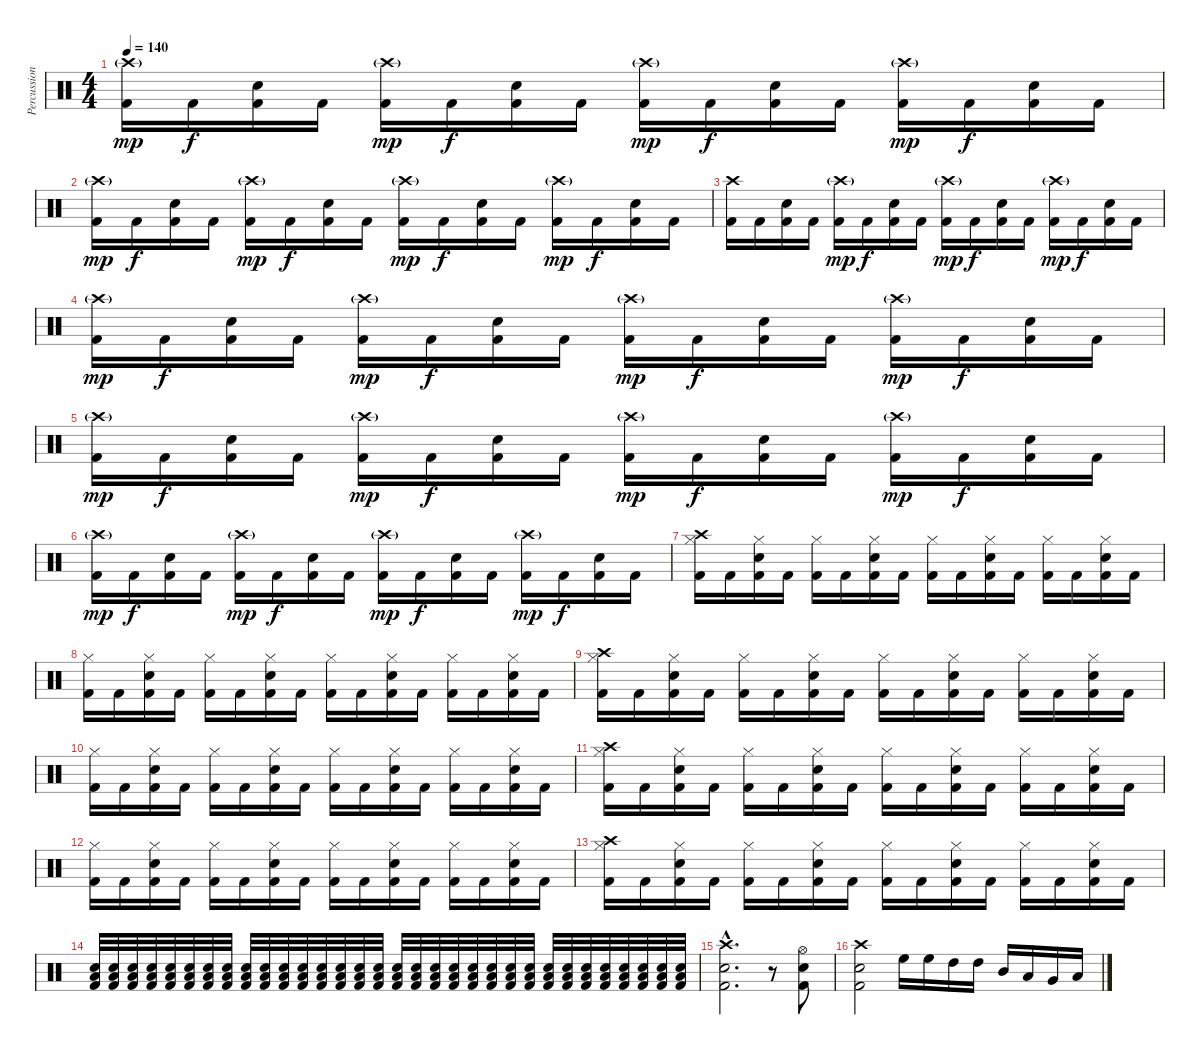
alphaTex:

\track ("Percussion" "Percussion") {instrument percussion}
\staff {score}
\articulation defaults
\ts (4 4)
\tempo 140
\clef neutral
\ks c
("Crash high (hit)"{g} "Kick (hit) 2").16{dy mp} "Kick (hit) 2".16{dy f} ("Electric Snare (hit)" "Kick (hit) 2").16 "Kick (hit) 2".16 ("Crash high (hit)"{g} "Kick (hit) 2").16{dy mp} "Kick (hit) 2".16{dy f} ("Electric Snare (hit)" "Kick (hit) 2").16 "Kick (hit) 2".16 ("Crash high (hit)"{g} "Kick (hit) 2").16{dy mp} "Kick (hit) 2".16{dy f} ("Electric Snare (hit)" "Kick (hit) 2").16 "Kick (hit) 2".16 ("Crash high (hit)"{g} "Kick (hit) 2").16{dy mp} "Kick (hit) 2".16{dy f} ("Electric Snare (hit)" "Kick (hit) 2").16 "Kick (hit) 2".16 |
("Crash high (hit)"{g} "Kick (hit) 2").16{dy mp} "Kick (hit) 2".16{dy f} ("Electric Snare (hit)" "Kick (hit) 2").16 "Kick (hit) 2".16 ("Crash high (hit)"{g} "Kick (hit) 2").16{dy mp} "Kick (hit) 2".16{dy f} ("Electric Snare (hit)" "Kick (hit) 2").16 "Kick (hit) 2".16 ("Crash high (hit)"{g} "Kick (hit) 2").16{dy mp} "Kick (hit) 2".16{dy f} ("Electric Snare (hit)" "Kick (hit) 2").16 "Kick (hit) 2".16 ("Crash high (hit)"{g} "Kick (hit) 2").16{dy mp} "Kick (hit) 2".16{dy f} ("Electric Snare (hit)" "Kick (hit) 2").16 "Kick (hit) 2".16 |
("Crash high (hit)" "Kick (hit) 2").16 "Kick (hit) 2".16 ("Electric Snare (hit)" "Kick (hit) 2").16 "Kick (hit) 2".16 ("Crash high (hit)"{g} "Kick (hit) 2").16{dy mp} "Kick (hit) 2".16{dy f} ("Electric Snare (hit)" "Kick (hit) 2").16 "Kick (hit) 2".16 ("Crash high (hit)"{g} "Kick (hit) 2").16{dy mp} "Kick (hit) 2".16{dy f} ("Electric Snare (hit)" "Kick (hit) 2").16 "Kick (hit) 2".16 ("Crash high (hit)"{g} "Kick (hit) 2").16{dy mp} "Kick (hit) 2".16{dy f} ("Electric Snare (hit)" "Kick (hit) 2").16 "Kick (hit) 2".16 |
("Crash high (hit)"{g} "Kick (hit) 2").16{dy mp} "Kick (hit) 2".16{dy f} ("Electric Snare (hit)" "Kick (hit) 2").16 "Kick (hit) 2".16 ("Crash high (hit)"{g} "Kick (hit) 2").16{dy mp} "Kick (hit) 2".16{dy f} ("Electric Snare (hit)" "Kick (hit) 2").16 "Kick (hit) 2".16 ("Crash high (hit)"{g} "Kick (hit) 2").16{dy mp} "Kick (hit) 2".16{dy f} ("Electric Snare (hit)" "Kick (hit) 2").16 "Kick (hit) 2".16 ("Crash high (hit)"{g} "Kick (hit) 2").16{dy mp} "Kick (hit) 2".16{dy f} ("Electric Snare (hit)" "Kick (hit) 2").16 "Kick (hit) 2".16 |
("Crash high (hit)"{g} "Kick (hit) 2").16{dy mp} "Kick (hit) 2".16{dy f} ("Electric Snare (hit)" "Kick (hit) 2").16 "Kick (hit) 2".16 ("Crash high (hit)"{g} "Kick (hit) 2").16{dy mp} "Kick (hit) 2".16{dy f} ("Electric Snare (hit)" "Kick (hit) 2").16 "Kick (hit) 2".16 ("Crash high (hit)"{g} "Kick (hit) 2").16{dy mp} "Kick (hit) 2".16{dy f} ("Electric Snare (hit)" "Kick (hit) 2").16 "Kick (hit) 2".16 ("Crash high (hit)"{g} "Kick (hit) 2").16{dy mp} "Kick (hit) 2".16{dy f} ("Electric Snare (hit)" "Kick (hit) 2").16 "Kick (hit) 2".16 |
("Crash high (hit)"{g} "Kick (hit) 2").16{dy mp} "Kick (hit) 2".16{dy f} ("Electric Snare (hit)" "Kick (hit) 2").16 "Kick (hit) 2".16 ("Crash high (hit)"{g} "Kick (hit) 2").16{dy mp} "Kick (hit) 2".16{dy f} ("Electric Snare (hit)" "Kick (hit) 2").16 "Kick (hit) 2".16 ("Crash high (hit)"{g} "Kick (hit) 2").16{dy mp} "Kick (hit) 2".16{dy f} ("Electric Snare (hit)" "Kick (hit) 2").16 "Kick (hit) 2".16 ("Crash high (hit)"{g} "Kick (hit) 2").16{dy mp} "Kick (hit) 2".16{dy f} ("Electric Snare (hit)" "Kick (hit) 2").16 "Kick (hit) 2".16 |
("Crash high (hit)" "Hi-Hat (closed)" "Kick (hit) 2").16 "Kick (hit) 2".16 ("Hi-Hat (closed)" "Electric Snare (hit)" "Kick (hit) 2").16 "Kick (hit) 2".16 ("Hi-Hat (closed)" "Kick (hit) 2").16 "Kick (hit) 2".16 ("Hi-Hat (closed)" "Electric Snare (hit)" "Kick (hit) 2").16 "Kick (hit) 2".16 ("Hi-Hat (closed)" "Kick (hit) 2").16 "Kick (hit) 2".16 ("Hi-Hat (closed)" "Electric Snare (hit)" "Kick (hit) 2").16 "Kick (hit) 2".16 ("Hi-Hat (closed)" "Kick (hit) 2").16 "Kick (hit) 2".16 ("Hi-Hat (closed)" "Electric Snare (hit)" "Kick (hit) 2").16 "Kick (hit) 2".16 |
("Hi-Hat (closed)" "Kick (hit) 2").16 "Kick (hit) 2".16 ("Hi-Hat (closed)" "Electric Snare (hit)" "Kick (hit) 2").16 "Kick (hit) 2".16 ("Hi-Hat (closed)" "Kick (hit) 2").16 "Kick (hit) 2".16 ("Hi-Hat (closed)" "Electric Snare (hit)" "Kick (hit) 2").16 "Kick (hit) 2".16 ("Hi-Hat (closed)" "Kick (hit) 2").16 "Kick (hit) 2".16 ("Hi-Hat (closed)" "Electric Snare (hit)" "Kick (hit) 2").16 "Kick (hit) 2".16 ("Hi-Hat (closed)" "Kick (hit) 2").16 "Kick (hit) 2".16 ("Hi-Hat (closed)" "Electric Snare (hit)" "Kick (hit) 2").16 "Kick (hit) 2".16 |
("Crash high (hit)" "Hi-Hat (closed)" "Kick (hit) 2").16 "Kick (hit) 2".16 ("Hi-Hat (closed)" "Electric Snare (hit)" "Kick (hit) 2").16 "Kick (hit) 2".16 ("Hi-Hat (closed)" "Kick (hit) 2").16 "Kick (hit) 2".16 ("Hi-Hat (closed)" "Electric Snare (hit)" "Kick (hit) 2").16 "Kick (hit) 2".16 ("Hi-Hat (closed)" "Kick (hit) 2").16 "Kick (hit) 2".16 ("Hi-Hat (closed)" "Electric Snare (hit)" "Kick (hit) 2").16 "Kick (hit) 2".16 ("Hi-Hat (closed)" "Kick (hit) 2").16 "Kick (hit) 2".16 ("Hi-Hat (closed)" "Electric Snare (hit)" "Kick (hit) 2").16 "Kick (hit) 2".16 |
("Hi-Hat (closed)" "Kick (hit) 2").16 "Kick (hit) 2".16 ("Hi-Hat (closed)" "Electric Snare (hit)" "Kick (hit) 2").16 "Kick (hit) 2".16 ("Hi-Hat (closed)" "Kick (hit) 2").16 "Kick (hit) 2".16 ("Hi-Hat (closed)" "Electric Snare (hit)" "Kick (hit) 2").16 "Kick (hit) 2".16 ("Hi-Hat (closed)" "Kick (hit) 2").16 "Kick (hit) 2".16 ("Hi-Hat (closed)" "Electric Snare (hit)" "Kick (hit) 2").16 "Kick (hit) 2".16 ("Hi-Hat (closed)" "Kick (hit) 2").16 "Kick (hit) 2".16 ("Hi-Hat (closed)" "Electric Snare (hit)" "Kick (hit) 2").16 "Kick (hit) 2".16 |
("Crash high (hit)" "Hi-Hat (closed)" "Kick (hit) 2").16 "Kick (hit) 2".16 ("Hi-Hat (closed)" "Electric Snare (hit)" "Kick (hit) 2").16 "Kick (hit) 2".16 ("Hi-Hat (closed)" "Kick (hit) 2").16 "Kick (hit) 2".16 ("Hi-Hat (closed)" "Electric Snare (hit)" "Kick (hit) 2").16 "Kick (hit) 2".16 ("Hi-Hat (closed)" "Kick (hit) 2").16 "Kick (hit) 2".16 ("Hi-Hat (closed)" "Electric Snare (hit)" "Kick (hit) 2").16 "Kick (hit) 2".16 ("Hi-Hat (closed)" "Kick (hit) 2").16 "Kick (hit) 2".16 ("Hi-Hat (closed)" "Electric Snare (hit)" "Kick (hit) 2").16 "Kick (hit) 2".16 |
("Hi-Hat (closed)" "Kick (hit) 2").16 "Kick (hit) 2".16 ("Hi-Hat (closed)" "Electric Snare (hit)" "Kick (hit) 2").16 "Kick (hit) 2".16 ("Hi-Hat (closed)" "Kick (hit) 2").16 "Kick (hit) 2".16 ("Hi-Hat (closed)" "Electric Snare (hit)" "Kick (hit) 2").16 "Kick (hit) 2".16 ("Hi-Hat (closed)" "Kick (hit) 2").16 "Kick (hit) 2".16 ("Hi-Hat (closed)" "Electric Snare (hit)" "Kick (hit) 2").16 "Kick (hit) 2".16 ("Hi-Hat (closed)" "Kick (hit) 2").16 "Kick (hit) 2".16 ("Hi-Hat (closed)" "Electric Snare (hit)" "Kick (hit) 2").16 "Kick (hit) 2".16 |
("Crash high (hit)" "Hi-Hat (closed)" "Kick (hit) 2").16 "Kick (hit) 2".16 ("Hi-Hat (closed)" "Electric Snare (hit)" "Kick (hit) 2").16 "Kick (hit) 2".16 ("Hi-Hat (closed)" "Kick (hit) 2").16 "Kick (hit) 2".16 ("Hi-Hat (closed)" "Electric Snare (hit)" "Kick (hit) 2").16 "Kick (hit) 2".16 ("Hi-Hat (closed)" "Kick (hit) 2").16 "Kick (hit) 2".16 ("Hi-Hat (closed)" "Electric Snare (hit)" "Kick (hit) 2").16 "Kick (hit) 2".16 ("Hi-Hat (closed)" "Kick (hit) 2").16 "Kick (hit) 2".16 ("Hi-Hat (closed)" "Electric Snare (hit)" "Kick (hit) 2").16 "Kick (hit) 2".16 |
("Electric Snare (hit)" "Low Floor Tom (hit)" "Kick (hit) 2").32 ("Electric Snare (hit)" "Low Floor Tom (hit)" "Kick (hit) 2").32 ("Electric Snare (hit)" "Low Floor Tom (hit)" "Kick (hit) 2").32 ("Electric Snare (hit)" "Low Floor Tom (hit)" "Kick (hit) 2").32 ("Electric Snare (hit)" "Low Floor Tom (hit)" "Kick (hit) 2").32 ("Electric Snare (hit)" "Low Floor Tom (hit)" "Kick (hit) 2").32 ("Electric Snare (hit)" "Low Floor Tom (hit)" "Kick (hit) 2").32 ("Electric Snare (hit)" "Low Floor Tom (hit)" "Kick (hit) 2").32 ("Electric Snare (hit)" "Low Floor Tom (hit)" "Kick (hit) 2").32 ("Electric Snare (hit)" "Low Floor Tom (hit)" "Kick (hit) 2").32 ("Electric Snare (hit)" "Low Floor Tom (hit)" "Kick (hit) 2").32 ("Electric Snare (hit)" "Low Floor Tom (hit)" "Kick (hit) 2").32 ("Electric Snare (hit)" "Low Floor Tom (hit)" "Kick (hit) 2").32 ("Electric Snare (hit)" "Low Floor Tom (hit)" "Kick (hit) 2").32 ("Electric Snare (hit)" "Low Floor Tom (hit)" "Kick (hit) 2").32 ("Electric Snare (hit)" "Low Floor Tom (hit)" "Kick (hit) 2").32 ("Electric Snare (hit)" "Low Floor Tom (hit)" "Kick (hit) 2").32 ("Electric Snare (hit)" "Low Floor Tom (hit)" "Kick (hit) 2").32 ("Electric Snare (hit)" "Low Floor Tom (hit)" "Kick (hit) 2").32 ("Electric Snare (hit)" "Low Floor Tom (hit)" "Kick (hit) 2").32 ("Electric Snare (hit)" "Low Floor Tom (hit)" "Kick (hit) 2").32 ("Electric Snare (hit)" "Low Floor Tom (hit)" "Kick (hit) 2").32 ("Electric Snare (hit)" "Low Floor Tom (hit)" "Kick (hit) 2").32 ("Electric Snare (hit)" "Low Floor Tom (hit)" "Kick (hit) 2").32 ("Electric Snare (hit)" "Low Floor Tom (hit)" "Kick (hit) 2").32 ("Electric Snare (hit)" "Low Floor Tom (hit)" "Kick (hit) 2").32 ("Electric Snare (hit)" "Low Floor Tom (hit)" "Kick (hit) 2").32 ("Electric Snare (hit)" "Low Floor Tom (hit)" "Kick (hit) 2").32 ("Electric Snare (hit)" "Low Floor Tom (hit)" "Kick (hit) 2").32 ("Electric Snare (hit)" "Low Floor Tom (hit)" "Kick (hit) 2").32 ("Electric Snare (hit)" "Low Floor Tom (hit)" "Kick (hit) 2").32 ("Electric Snare (hit)" "Low Floor Tom (hit)" "Kick (hit) 2").32 |
("Crash high (hit)"{hac} "Electric Snare (hit)"{hac} "Kick (hit) 2"{hac}).2{d} r.8 ("Hi-Hat (open)" "Electric Snare (hit)" "Kick (hit) 2").8 |
("Crash high (hit)" "Electric Snare (hit)" "Kick (hit) 2").2 "High Floor Tom (hit)".16 "High Floor Tom (hit)".16 "High Tom (hit)".16 "High Tom (hit)".16 "Mid Tom (hit)".16 "Low Tom (hit)".16 "Very Low Tom (hit)".16 "Low Floor Tom (hit)".16
